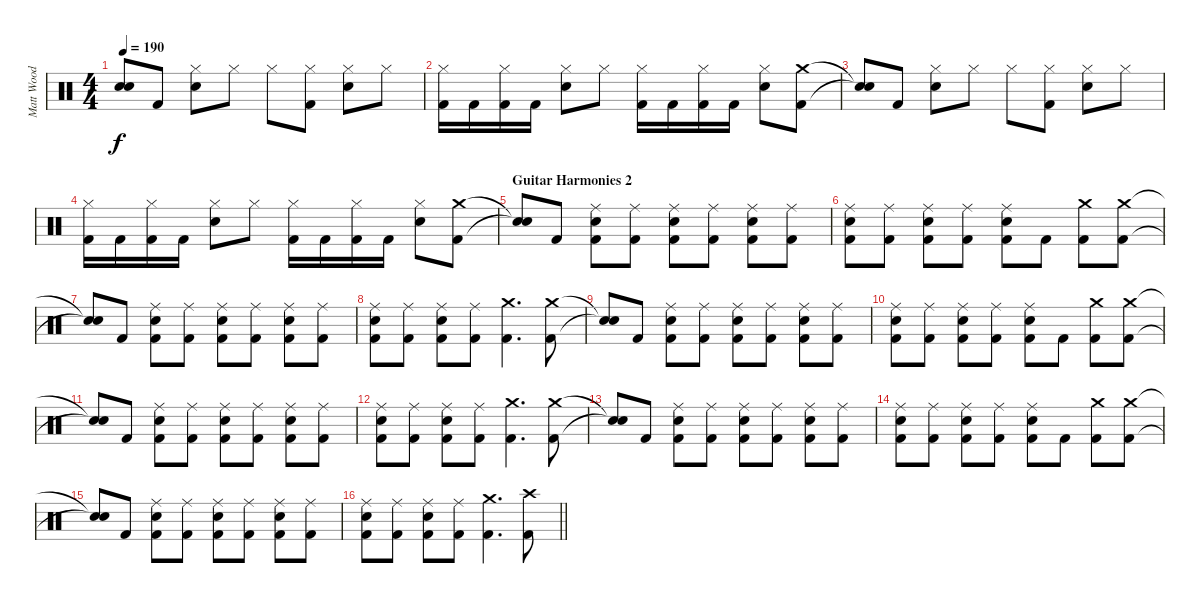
\track ("Matt Wood" "Matt Wood") {instrument percussion}
\staff {score}
\articulation defaults
\ts (4 4)
\tempo 190
\clef neutral
\ks c
("Snare (hit)"{t} "Snare (hit)"{t}).8{dy f} "Kick (hit) 2".8 ("Hi-Hat (closed)" "Snare (hit) 2").8 "Hi-Hat (closed)".8 "Hi-Hat (closed)".8 ("Hi-Hat (closed)" "Kick (hit) 2").8 ("Hi-Hat (closed)" "Snare (hit) 2").8 "Hi-Hat (closed)".8 |
("Hi-Hat (closed)" "Kick (hit) 2").16 "Kick (hit) 2".16 ("Hi-Hat (closed)" "Kick (hit) 2").16 "Kick (hit) 2".16 ("Hi-Hat (closed)" "Snare (hit) 2").8 "Hi-Hat (closed)".8 ("Hi-Hat (closed)" "Kick (hit) 2").16 "Kick (hit) 2".16 ("Hi-Hat (closed)" "Kick (hit) 2").16 "Kick (hit) 2".16 ("Hi-Hat (closed)" "Snare (hit) 2").8 ("Crash medium (hit)" "Kick (hit) 2").8 |
("Snare (hit)"{t} "Snare (hit)"{t}).8 "Kick (hit) 2".8 ("Hi-Hat (closed)" "Snare (hit) 2").8 "Hi-Hat (closed)".8 "Hi-Hat (closed)".8 ("Hi-Hat (closed)" "Kick (hit) 2").8 ("Hi-Hat (closed)" "Snare (hit) 2").8 "Hi-Hat (closed)".8 |
("Hi-Hat (closed)" "Kick (hit) 2").16 "Kick (hit) 2".16 ("Hi-Hat (closed)" "Kick (hit) 2").16 "Kick (hit) 2".16 ("Hi-Hat (closed)" "Snare (hit) 2").8 "Hi-Hat (closed)".8 ("Hi-Hat (closed)" "Kick (hit) 2").16 "Kick (hit) 2".16 ("Hi-Hat (closed)" "Kick (hit) 2").16 "Kick (hit) 2".16 ("Hi-Hat (closed)" "Snare (hit) 2").8 ("Crash medium (hit)" "Kick (hit) 2").8 |
\section ("" "Guitar Harmonies 2")
("Snare (hit)"{t} "Snare (hit)"{t}).8 "Kick (hit) 2".8 ("Ride (middle)" "Snare (hit) 2" "Kick (hit) 2").8 ("Ride (middle)" "Kick (hit) 2").8 ("Ride (middle)" "Snare (hit) 2" "Kick (hit) 2").8 ("Ride (middle)" "Kick (hit) 2").8 ("Ride (middle)" "Snare (hit) 2" "Kick (hit) 2").8 ("Ride (middle)" "Kick (hit) 2").8 |
("Ride (middle)" "Snare (hit) 2" "Kick (hit) 2").8 ("Ride (middle)" "Kick (hit) 2").8 ("Ride (middle)" "Snare (hit) 2" "Kick (hit) 2").8 ("Ride (middle)" "Kick (hit) 2").8 ("Ride (middle)" "Snare (hit) 2" "Kick (hit) 2").8 "Kick (hit) 2".8 ("Crash medium (hit)" "Kick (hit) 2").8 ("Crash medium (hit)" "Kick (hit) 2").8 |
("Snare (hit)"{t} "Snare (hit)"{t}).8 "Kick (hit) 2".8 ("Ride (middle)" "Snare (hit) 2" "Kick (hit) 2").8 ("Ride (middle)" "Kick (hit) 2").8 ("Ride (middle)" "Snare (hit) 2" "Kick (hit) 2").8 ("Ride (middle)" "Kick (hit) 2").8 ("Ride (middle)" "Snare (hit) 2" "Kick (hit) 2").8 ("Ride (middle)" "Kick (hit) 2").8 |
("Ride (middle)" "Snare (hit) 2" "Kick (hit) 2").8 ("Ride (middle)" "Kick (hit) 2").8 ("Ride (middle)" "Snare (hit) 2" "Kick (hit) 2").8 ("Ride (middle)" "Kick (hit) 2").8 ("Crash medium (hit)" "Kick (hit) 2").4{d} ("Crash medium (hit)" "Kick (hit) 2").8 |
("Snare (hit)"{t} "Snare (hit)"{t}).8 "Kick (hit) 2".8 ("Ride (middle)" "Snare (hit) 2" "Kick (hit) 2").8 ("Ride (middle)" "Kick (hit) 2").8 ("Ride (middle)" "Snare (hit) 2" "Kick (hit) 2").8 ("Ride (middle)" "Kick (hit) 2").8 ("Ride (middle)" "Snare (hit) 2" "Kick (hit) 2").8 ("Ride (middle)" "Kick (hit) 2").8 |
("Ride (middle)" "Snare (hit) 2" "Kick (hit) 2").8 ("Ride (middle)" "Kick (hit) 2").8 ("Ride (middle)" "Snare (hit) 2" "Kick (hit) 2").8 ("Ride (middle)" "Kick (hit) 2").8 ("Ride (middle)" "Snare (hit) 2" "Kick (hit) 2").8 "Kick (hit) 2".8 ("Crash medium (hit)" "Kick (hit) 2").8 ("Crash medium (hit)" "Kick (hit) 2").8 |
("Snare (hit)"{t} "Snare (hit)"{t}).8 "Kick (hit) 2".8 ("Ride (middle)" "Snare (hit) 2" "Kick (hit) 2").8 ("Ride (middle)" "Kick (hit) 2").8 ("Ride (middle)" "Snare (hit) 2" "Kick (hit) 2").8 ("Ride (middle)" "Kick (hit) 2").8 ("Ride (middle)" "Snare (hit) 2" "Kick (hit) 2").8 ("Ride (middle)" "Kick (hit) 2").8 |
("Ride (middle)" "Snare (hit) 2" "Kick (hit) 2").8 ("Ride (middle)" "Kick (hit) 2").8 ("Ride (middle)" "Snare (hit) 2" "Kick (hit) 2").8 ("Ride (middle)" "Kick (hit) 2").8 ("Crash medium (hit)" "Kick (hit) 2").4{d} ("Crash medium (hit)" "Kick (hit) 2").8 |
("Snare (hit)"{t} "Snare (hit)"{t}).8 "Kick (hit) 2".8 ("Ride (middle)" "Snare (hit) 2" "Kick (hit) 2").8 ("Ride (middle)" "Kick (hit) 2").8 ("Ride (middle)" "Snare (hit) 2" "Kick (hit) 2").8 ("Ride (middle)" "Kick (hit) 2").8 ("Ride (middle)" "Snare (hit) 2" "Kick (hit) 2").8 ("Ride (middle)" "Kick (hit) 2").8 |
("Ride (middle)" "Snare (hit) 2" "Kick (hit) 2").8 ("Ride (middle)" "Kick (hit) 2").8 ("Ride (middle)" "Snare (hit) 2" "Kick (hit) 2").8 ("Ride (middle)" "Kick (hit) 2").8 ("Ride (middle)" "Snare (hit) 2" "Kick (hit) 2").8 "Kick (hit) 2".8 ("Crash medium (hit)" "Kick (hit) 2").8 ("Crash medium (hit)" "Kick (hit) 2").8 |
("Snare (hit)"{t} "Snare (hit)"{t}).8 "Kick (hit) 2".8 ("Ride (middle)" "Snare (hit) 2" "Kick (hit) 2").8 ("Ride (middle)" "Kick (hit) 2").8 ("Ride (middle)" "Snare (hit) 2" "Kick (hit) 2").8 ("Ride (middle)" "Kick (hit) 2").8 ("Ride (middle)" "Snare (hit) 2" "Kick (hit) 2").8 ("Ride (middle)" "Kick (hit) 2").8 |
\barLineRight lightlight
("Ride (middle)" "Snare (hit) 2" "Kick (hit) 2").8 ("Ride (middle)" "Kick (hit) 2").8 ("Ride (middle)" "Snare (hit) 2" "Kick (hit) 2").8 ("Ride (middle)" "Kick (hit) 2").8 ("Crash medium (hit)" "Kick (hit) 2").4{d} ("Crash high (hit)" "Kick (hit) 2").8
